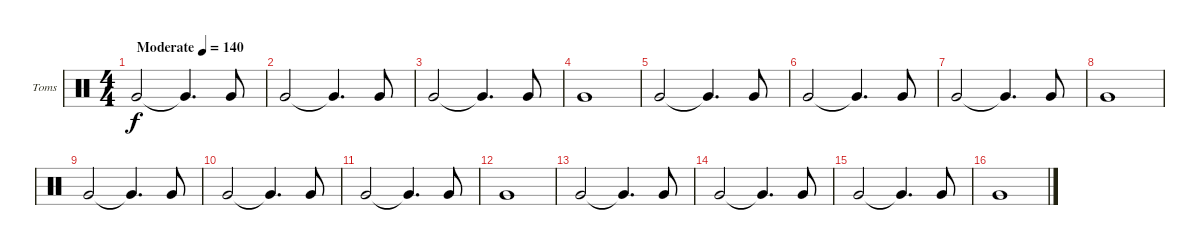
\bracketExtendMode groupsimilarinstruments
\firstSystemTrackNameOrientation horizontal
\otherSystemsTrackNameOrientation horizontal
\track ("Toms" "Toms") {instrument percussion}
\staff {score}
\articulation defaults
\ts (4 4)
\beaming (8 2 2 2 2)
\tempo (140 "Moderate")
\clef neutral
\scale
0.474178
\ks c "Very Low Tom (hit)".2{dy f} "Very Low Tom (hit)"{t}.4{d} "Very Low Tom (hit)".8
|
\scale
0.262911 "Very Low Tom (hit)".2 "Very Low Tom (hit)"{t}.4{d} "Very Low Tom (hit)".8 |
\scale
0.262911 "Very Low Tom (hit)".2 "Very Low Tom (hit)"{t}.4{d} "Very Low Tom (hit)".8 |
\scale
0.333333 "Very Low Tom (hit)".1 |
\scale
0.333333 "Very Low Tom (hit)".2 "Very Low Tom (hit)"{t}.4{d} "Very Low Tom (hit)".8 |
\scale
0.333333 "Very Low Tom (hit)".2 "Very Low Tom (hit)"{t}.4{d} "Very Low Tom (hit)".8 |
\scale
0.333333 "Very Low Tom (hit)".2 "Very Low Tom (hit)"{t}.4{d} "Very Low Tom (hit)".8 |
\scale
0.333333 "Very Low Tom (hit)".1 |
\scale
0.333333 "Very Low Tom (hit)".2 "Very Low Tom (hit)"{t}.4{d} "Very Low Tom (hit)".8 |
\scale
0.333333 "Very Low Tom (hit)".2 "Very Low Tom (hit)"{t}.4{d} "Very Low Tom (hit)".8 |
\scale
0.333333 "Very Low Tom (hit)".2 "Very Low Tom (hit)"{t}.4{d} "Very Low Tom (hit)".8 |
\scale
0.333333 "Very Low Tom (hit)".1 |
\scale
0.333333 "Very Low Tom (hit)".2 "Very Low Tom (hit)"{t}.4{d} "Very Low Tom (hit)".8 |
\scale
0.333333 "Very Low Tom (hit)".2 "Very Low Tom (hit)"{t}.4{d} "Very Low Tom (hit)".8 |
\scale
0.333333 "Very Low Tom (hit)".2 "Very Low Tom (hit)"{t}.4{d} "Very Low Tom (hit)".8 |
\scale
0.333333 "Very Low Tom (hit)".1
